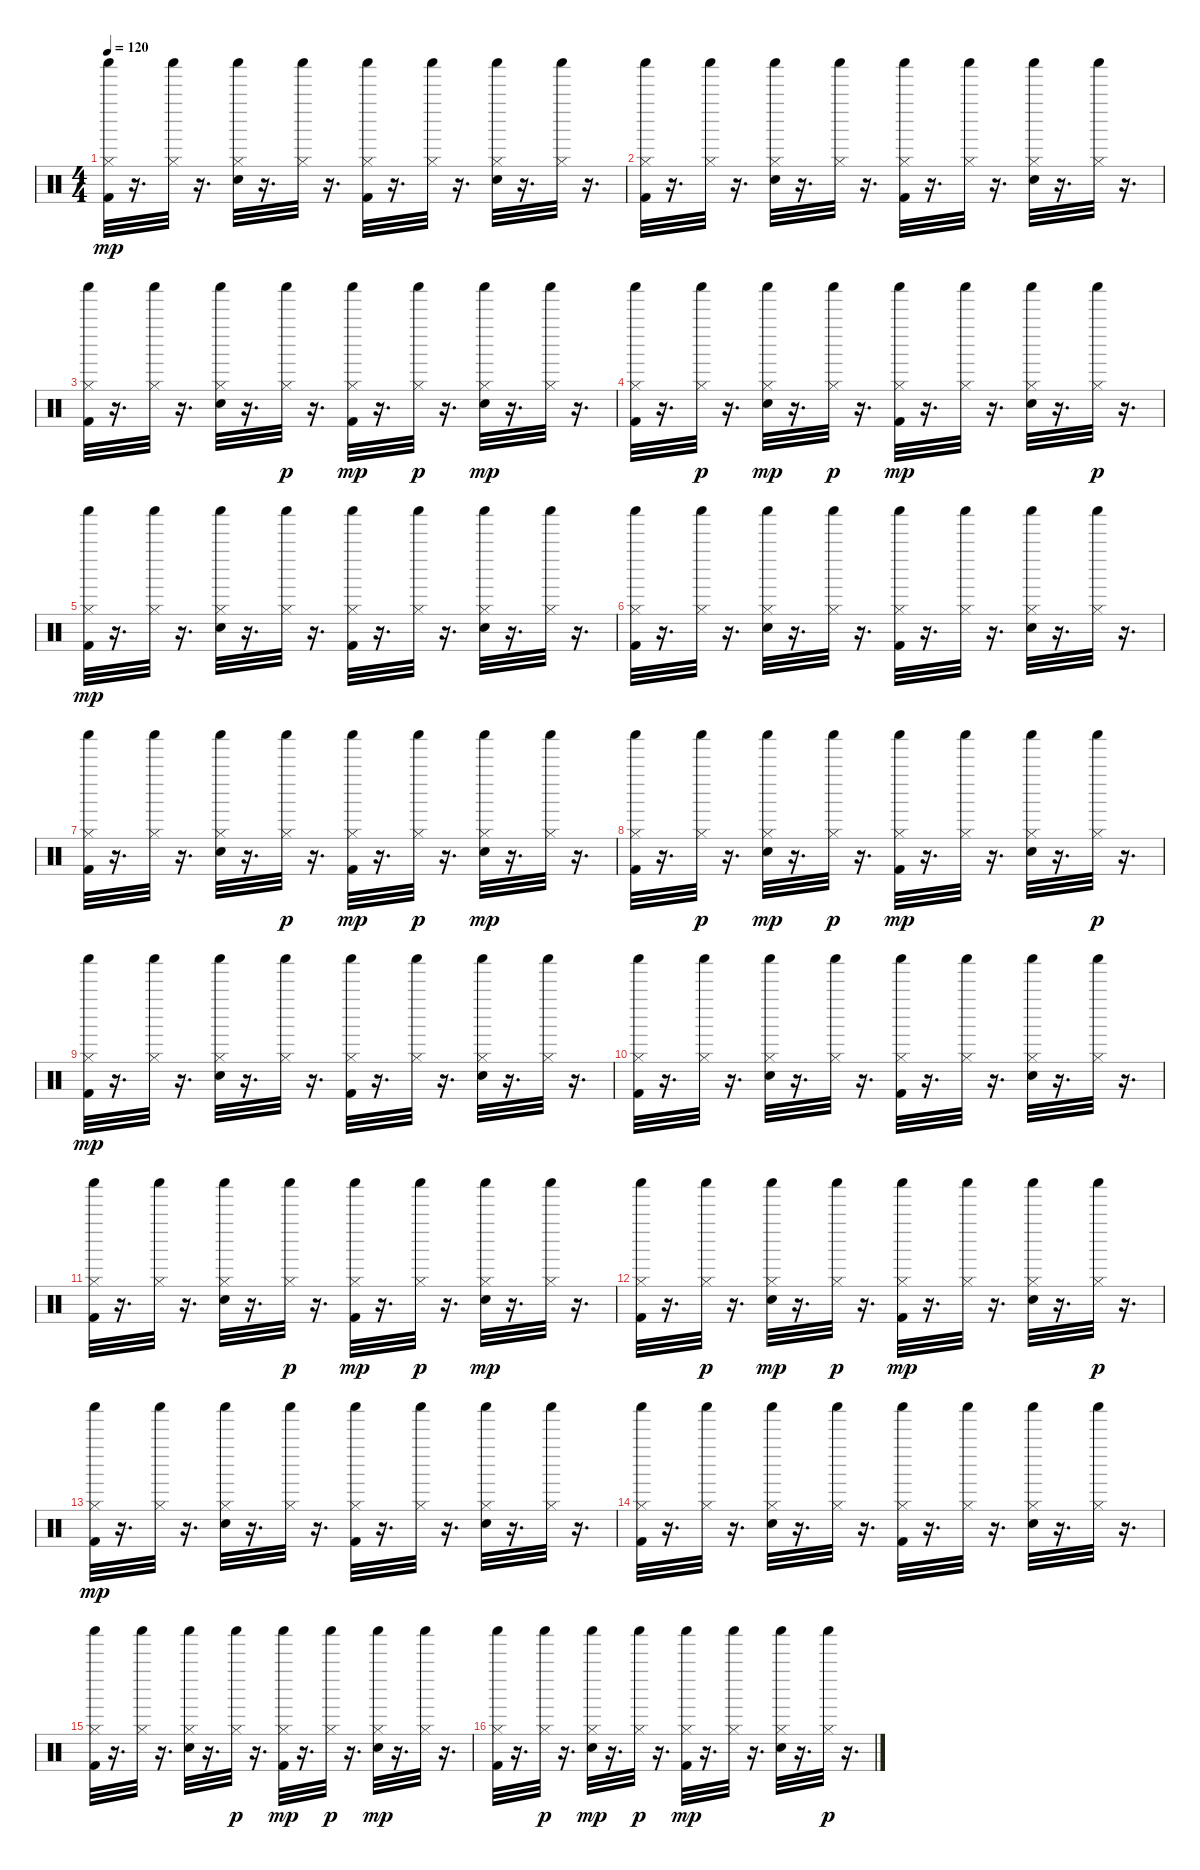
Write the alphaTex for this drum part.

\track "" {instrument percussion}
\staff {score}
\articulation defaults
\ts (4 4)
\tempo 120
\clef neutral
\ks c
("Kick (hit) 2" "Hi-Hat (closed)" "Shaker (hit)").32{dy mp} r.16{d} ("Hi-Hat (closed)" "Shaker (hit)").32 r.16{d} ("Electric Snare (hit)" "Hi-Hat (closed)" "Shaker (hit)").32 r.16{d} ("Hi-Hat (closed)" "Shaker (hit)").32 r.16{d} ("Kick (hit) 2" "Hi-Hat (closed)" "Shaker (hit)").32 r.16{d} ("Hi-Hat (closed)" "Shaker (hit)").32 r.16{d} ("Electric Snare (hit)" "Hi-Hat (closed)" "Shaker (hit)").32 r.16{d} ("Hi-Hat (closed)" "Shaker (hit)").32 r.16{d} |
("Kick (hit) 2" "Hi-Hat (closed)" "Shaker (hit)").32 r.16{d} ("Hi-Hat (closed)" "Shaker (hit)").32 r.16{d} ("Electric Snare (hit)" "Hi-Hat (closed)" "Shaker (hit)").32 r.16{d} ("Hi-Hat (closed)" "Shaker (hit)").32 r.16{d} ("Kick (hit) 2" "Hi-Hat (closed)" "Shaker (hit)").32 r.16{d} ("Hi-Hat (closed)" "Shaker (hit)").32 r.16{d} ("Electric Snare (hit)" "Hi-Hat (closed)" "Shaker (hit)").32 r.16{d} ("Hi-Hat (closed)" "Shaker (hit)").32 r.16{d} |
("Kick (hit) 2" "Hi-Hat (closed)" "Shaker (hit)").32 r.16{d} ("Hi-Hat (closed)" "Shaker (hit)").32 r.16{d} ("Electric Snare (hit)" "Hi-Hat (closed)" "Shaker (hit)").32 r.16{d} ("Hi-Hat (closed)" "Shaker (hit)").32{dy p} r.16{d} ("Kick (hit) 2" "Hi-Hat (closed)" "Shaker (hit)").32{dy mp} r.16{d} ("Hi-Hat (closed)" "Shaker (hit)").32{dy p} r.16{d} ("Electric Snare (hit)" "Hi-Hat (closed)" "Shaker (hit)").32{dy mp} r.16{d} ("Hi-Hat (closed)" "Shaker (hit)").32 r.16{d} |
("Kick (hit) 2" "Hi-Hat (closed)" "Shaker (hit)").32 r.16{d} ("Hi-Hat (closed)" "Shaker (hit)").32{dy p} r.16{d} ("Electric Snare (hit)" "Hi-Hat (closed)" "Shaker (hit)").32{dy mp} r.16{d} ("Hi-Hat (closed)" "Shaker (hit)").32{dy p} r.16{d} ("Kick (hit) 2" "Hi-Hat (closed)" "Shaker (hit)").32{dy mp} r.16{d} ("Hi-Hat (closed)" "Shaker (hit)").32 r.16{d} ("Electric Snare (hit)" "Hi-Hat (closed)" "Shaker (hit)").32 r.16{d} ("Hi-Hat (closed)" "Shaker (hit)").32{dy p} r.16{d} |
("Kick (hit) 2" "Hi-Hat (closed)" "Shaker (hit)").32{dy mp} r.16{d} ("Hi-Hat (closed)" "Shaker (hit)").32 r.16{d} ("Electric Snare (hit)" "Hi-Hat (closed)" "Shaker (hit)").32 r.16{d} ("Hi-Hat (closed)" "Shaker (hit)").32 r.16{d} ("Kick (hit) 2" "Hi-Hat (closed)" "Shaker (hit)").32 r.16{d} ("Hi-Hat (closed)" "Shaker (hit)").32 r.16{d} ("Electric Snare (hit)" "Hi-Hat (closed)" "Shaker (hit)").32 r.16{d} ("Hi-Hat (closed)" "Shaker (hit)").32 r.16{d} |
("Kick (hit) 2" "Hi-Hat (closed)" "Shaker (hit)").32 r.16{d} ("Hi-Hat (closed)" "Shaker (hit)").32 r.16{d} ("Electric Snare (hit)" "Hi-Hat (closed)" "Shaker (hit)").32 r.16{d} ("Hi-Hat (closed)" "Shaker (hit)").32 r.16{d} ("Kick (hit) 2" "Hi-Hat (closed)" "Shaker (hit)").32 r.16{d} ("Hi-Hat (closed)" "Shaker (hit)").32 r.16{d} ("Electric Snare (hit)" "Hi-Hat (closed)" "Shaker (hit)").32 r.16{d} ("Hi-Hat (closed)" "Shaker (hit)").32 r.16{d} |
("Kick (hit) 2" "Hi-Hat (closed)" "Shaker (hit)").32 r.16{d} ("Hi-Hat (closed)" "Shaker (hit)").32 r.16{d} ("Electric Snare (hit)" "Hi-Hat (closed)" "Shaker (hit)").32 r.16{d} ("Hi-Hat (closed)" "Shaker (hit)").32{dy p} r.16{d} ("Kick (hit) 2" "Hi-Hat (closed)" "Shaker (hit)").32{dy mp} r.16{d} ("Hi-Hat (closed)" "Shaker (hit)").32{dy p} r.16{d} ("Electric Snare (hit)" "Hi-Hat (closed)" "Shaker (hit)").32{dy mp} r.16{d} ("Hi-Hat (closed)" "Shaker (hit)").32 r.16{d} |
("Kick (hit) 2" "Hi-Hat (closed)" "Shaker (hit)").32 r.16{d} ("Hi-Hat (closed)" "Shaker (hit)").32{dy p} r.16{d} ("Electric Snare (hit)" "Hi-Hat (closed)" "Shaker (hit)").32{dy mp} r.16{d} ("Hi-Hat (closed)" "Shaker (hit)").32{dy p} r.16{d} ("Kick (hit) 2" "Hi-Hat (closed)" "Shaker (hit)").32{dy mp} r.16{d} ("Hi-Hat (closed)" "Shaker (hit)").32 r.16{d} ("Electric Snare (hit)" "Hi-Hat (closed)" "Shaker (hit)").32 r.16{d} ("Hi-Hat (closed)" "Shaker (hit)").32{dy p} r.16{d} |
("Kick (hit) 2" "Hi-Hat (closed)" "Shaker (hit)").32{dy mp} r.16{d} ("Hi-Hat (closed)" "Shaker (hit)").32 r.16{d} ("Electric Snare (hit)" "Hi-Hat (closed)" "Shaker (hit)").32 r.16{d} ("Hi-Hat (closed)" "Shaker (hit)").32 r.16{d} ("Kick (hit) 2" "Hi-Hat (closed)" "Shaker (hit)").32 r.16{d} ("Hi-Hat (closed)" "Shaker (hit)").32 r.16{d} ("Electric Snare (hit)" "Hi-Hat (closed)" "Shaker (hit)").32 r.16{d} ("Hi-Hat (closed)" "Shaker (hit)").32 r.16{d} |
("Kick (hit) 2" "Hi-Hat (closed)" "Shaker (hit)").32 r.16{d} ("Hi-Hat (closed)" "Shaker (hit)").32 r.16{d} ("Electric Snare (hit)" "Hi-Hat (closed)" "Shaker (hit)").32 r.16{d} ("Hi-Hat (closed)" "Shaker (hit)").32 r.16{d} ("Kick (hit) 2" "Hi-Hat (closed)" "Shaker (hit)").32 r.16{d} ("Hi-Hat (closed)" "Shaker (hit)").32 r.16{d} ("Electric Snare (hit)" "Hi-Hat (closed)" "Shaker (hit)").32 r.16{d} ("Hi-Hat (closed)" "Shaker (hit)").32 r.16{d} |
("Kick (hit) 2" "Hi-Hat (closed)" "Shaker (hit)").32 r.16{d} ("Hi-Hat (closed)" "Shaker (hit)").32 r.16{d} ("Electric Snare (hit)" "Hi-Hat (closed)" "Shaker (hit)").32 r.16{d} ("Hi-Hat (closed)" "Shaker (hit)").32{dy p} r.16{d} ("Kick (hit) 2" "Hi-Hat (closed)" "Shaker (hit)").32{dy mp} r.16{d} ("Hi-Hat (closed)" "Shaker (hit)").32{dy p} r.16{d} ("Electric Snare (hit)" "Hi-Hat (closed)" "Shaker (hit)").32{dy mp} r.16{d} ("Hi-Hat (closed)" "Shaker (hit)").32 r.16{d} |
("Kick (hit) 2" "Hi-Hat (closed)" "Shaker (hit)").32 r.16{d} ("Hi-Hat (closed)" "Shaker (hit)").32{dy p} r.16{d} ("Electric Snare (hit)" "Hi-Hat (closed)" "Shaker (hit)").32{dy mp} r.16{d} ("Hi-Hat (closed)" "Shaker (hit)").32{dy p} r.16{d} ("Kick (hit) 2" "Hi-Hat (closed)" "Shaker (hit)").32{dy mp} r.16{d} ("Hi-Hat (closed)" "Shaker (hit)").32 r.16{d} ("Electric Snare (hit)" "Hi-Hat (closed)" "Shaker (hit)").32 r.16{d} ("Hi-Hat (closed)" "Shaker (hit)").32{dy p} r.16{d} |
("Kick (hit) 2" "Hi-Hat (closed)" "Shaker (hit)").32{dy mp} r.16{d} ("Hi-Hat (closed)" "Shaker (hit)").32 r.16{d} ("Electric Snare (hit)" "Hi-Hat (closed)" "Shaker (hit)").32 r.16{d} ("Hi-Hat (closed)" "Shaker (hit)").32 r.16{d} ("Kick (hit) 2" "Hi-Hat (closed)" "Shaker (hit)").32 r.16{d} ("Hi-Hat (closed)" "Shaker (hit)").32 r.16{d} ("Electric Snare (hit)" "Hi-Hat (closed)" "Shaker (hit)").32 r.16{d} ("Hi-Hat (closed)" "Shaker (hit)").32 r.16{d} |
("Kick (hit) 2" "Hi-Hat (closed)" "Shaker (hit)").32 r.16{d} ("Hi-Hat (closed)" "Shaker (hit)").32 r.16{d} ("Electric Snare (hit)" "Hi-Hat (closed)" "Shaker (hit)").32 r.16{d} ("Hi-Hat (closed)" "Shaker (hit)").32 r.16{d} ("Kick (hit) 2" "Hi-Hat (closed)" "Shaker (hit)").32 r.16{d} ("Hi-Hat (closed)" "Shaker (hit)").32 r.16{d} ("Electric Snare (hit)" "Hi-Hat (closed)" "Shaker (hit)").32 r.16{d} ("Hi-Hat (closed)" "Shaker (hit)").32 r.16{d} |
("Kick (hit) 2" "Hi-Hat (closed)" "Shaker (hit)").32 r.16{d} ("Hi-Hat (closed)" "Shaker (hit)").32 r.16{d} ("Electric Snare (hit)" "Hi-Hat (closed)" "Shaker (hit)").32 r.16{d} ("Hi-Hat (closed)" "Shaker (hit)").32{dy p} r.16{d} ("Kick (hit) 2" "Hi-Hat (closed)" "Shaker (hit)").32{dy mp} r.16{d} ("Hi-Hat (closed)" "Shaker (hit)").32{dy p} r.16{d} ("Electric Snare (hit)" "Hi-Hat (closed)" "Shaker (hit)").32{dy mp} r.16{d} ("Hi-Hat (closed)" "Shaker (hit)").32 r.16{d} |
("Kick (hit) 2" "Hi-Hat (closed)" "Shaker (hit)").32 r.16{d} ("Hi-Hat (closed)" "Shaker (hit)").32{dy p} r.16{d} ("Electric Snare (hit)" "Hi-Hat (closed)" "Shaker (hit)").32{dy mp} r.16{d} ("Hi-Hat (closed)" "Shaker (hit)").32{dy p} r.16{d} ("Kick (hit) 2" "Hi-Hat (closed)" "Shaker (hit)").32{dy mp} r.16{d} ("Hi-Hat (closed)" "Shaker (hit)").32 r.16{d} ("Electric Snare (hit)" "Hi-Hat (closed)" "Shaker (hit)").32 r.16{d} ("Hi-Hat (closed)" "Shaker (hit)").32{dy p} r.16{d}
